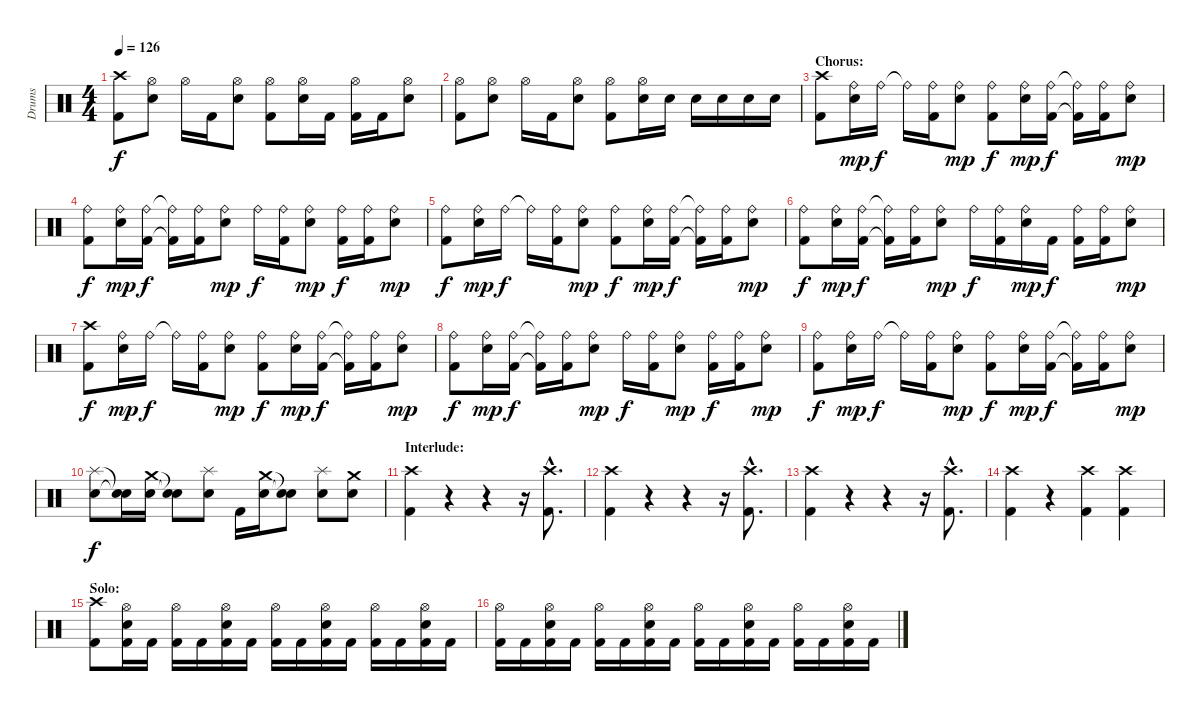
\track ("Drums" "Drums") {instrument percussion}
\staff {score}
\articulation defaults
\ts (4 4)
\tempo 126
\clef neutral
\ks c
("Crash high (hit)" "Kick (hit) 2").8{dy f} ("Hi-Hat (open)" "Snare (hit) 2").8 "Hi-Hat (open)".16 "Kick (hit) 2".16 ("Hi-Hat (open)" "Snare (hit) 2").8 ("Hi-Hat (open)" "Kick (hit) 2").8 ("Hi-Hat (open)" "Snare (hit) 2").16 "Kick (hit) 2".16 ("Hi-Hat (open)" "Kick (hit) 2").16 "Kick (hit) 2".16 ("Hi-Hat (open)" "Snare (hit) 2").8 |
("Hi-Hat (open)" "Kick (hit) 2").8 ("Hi-Hat (open)" "Snare (hit) 2").8 "Hi-Hat (open)".16 "Kick (hit) 2".16 ("Hi-Hat (open)" "Snare (hit) 2").8 ("Hi-Hat (open)" "Kick (hit) 2").8 ("Hi-Hat (open)" "Snare (hit) 2").16 "Snare (hit) 2".16 "Snare (hit) 2".16 "Snare (hit) 2".16 "Snare (hit) 2".16 "Snare (hit) 2".16 |
\section ("" "Chorus:")
("Crash high (hit)" "Kick (hit) 2").8 ("Ride (bell)" "Snare (hit) 2").16{dy mp} "Ride (bell)".16{dy f} "Ride (bell)"{t}.16 ("Ride (bell)" "Kick (hit) 2").16 ("Ride (bell)" "Snare (hit) 2").8{dy mp} ("Ride (bell)" "Kick (hit) 2").8{dy f} ("Ride (bell)" "Snare (hit) 2").16{dy mp} ("Ride (bell)" "Kick (hit) 2").16{dy f} ("Ride (bell)"{t} "Kick (hit) 2"{t}).16 ("Ride (bell)" "Kick (hit) 2").16 ("Ride (bell)" "Snare (hit) 2").8{dy mp} |
("Ride (bell)" "Kick (hit) 2").8{dy f} ("Ride (bell)" "Snare (hit) 2").16{dy mp} ("Ride (bell)" "Kick (hit) 2").16{dy f} ("Ride (bell)"{t} "Kick (hit) 2"{t}).16 ("Ride (bell)" "Kick (hit) 2").16 ("Ride (bell)" "Snare (hit) 2").8{dy mp} "Ride (bell)".16{dy f} ("Ride (bell)" "Kick (hit) 2").16 ("Ride (bell)" "Snare (hit) 2").8{dy mp} ("Ride (bell)" "Kick (hit) 2").16{dy f} ("Ride (bell)" "Kick (hit) 2").16 ("Ride (bell)" "Snare (hit) 2").8{dy mp} |
("Ride (bell)" "Kick (hit) 2").8{dy f} ("Ride (bell)" "Snare (hit) 2").16{dy mp} "Ride (bell)".16{dy f} "Ride (bell)"{t}.16 ("Ride (bell)" "Kick (hit) 2").16 ("Ride (bell)" "Snare (hit) 2").8{dy mp} ("Ride (bell)" "Kick (hit) 2").8{dy f} ("Ride (bell)" "Snare (hit) 2").16{dy mp} ("Ride (bell)" "Kick (hit) 2").16{dy f} ("Ride (bell)"{t} "Kick (hit) 2"{t}).16 ("Ride (bell)" "Kick (hit) 2").16 ("Ride (bell)" "Snare (hit) 2").8{dy mp} |
("Ride (bell)" "Kick (hit) 2").8{dy f} ("Ride (bell)" "Snare (hit) 2").16{dy mp} ("Ride (bell)" "Kick (hit) 2").16{dy f} ("Ride (bell)"{t} "Kick (hit) 2"{t}).16 ("Ride (bell)" "Kick (hit) 2").16 ("Ride (bell)" "Snare (hit) 2").8{dy mp} "Ride (bell)".16{dy f} ("Ride (bell)" "Kick (hit) 2").16 ("Ride (bell)" "Snare (hit) 2").16{dy mp} "Kick (hit) 2".16{dy f} ("Ride (bell)" "Kick (hit) 2").16 ("Ride (bell)" "Kick (hit) 2").16 ("Ride (bell)" "Snare (hit) 2").8{dy mp} |
("Crash high (hit)" "Kick (hit) 2").8{dy f} ("Ride (bell)" "Snare (hit) 2").16{dy mp} "Ride (bell)".16{dy f} "Ride (bell)"{t}.16 ("Ride (bell)" "Kick (hit) 2").16 ("Ride (bell)" "Snare (hit) 2").8{dy mp} ("Ride (bell)" "Kick (hit) 2").8{dy f} ("Ride (bell)" "Snare (hit) 2").16{dy mp} ("Ride (bell)" "Kick (hit) 2").16{dy f} ("Ride (bell)"{t} "Kick (hit) 2"{t}).16 ("Ride (bell)" "Kick (hit) 2").16 ("Ride (bell)" "Snare (hit) 2").8{dy mp} |
("Ride (bell)" "Kick (hit) 2").8{dy f} ("Ride (bell)" "Snare (hit) 2").16{dy mp} ("Ride (bell)" "Kick (hit) 2").16{dy f} ("Ride (bell)"{t} "Kick (hit) 2"{t}).16 ("Ride (bell)" "Kick (hit) 2").16 ("Ride (bell)" "Snare (hit) 2").8{dy mp} "Ride (bell)".16{dy f} ("Ride (bell)" "Kick (hit) 2").16 ("Ride (bell)" "Snare (hit) 2").8{dy mp} ("Ride (bell)" "Kick (hit) 2").16{dy f} ("Ride (bell)" "Kick (hit) 2").16 ("Ride (bell)" "Snare (hit) 2").8{dy mp} |
("Ride (bell)" "Kick (hit) 2").8{dy f} ("Ride (bell)" "Snare (hit) 2").16{dy mp} "Ride (bell)".16{dy f} "Ride (bell)"{t}.16 ("Ride (bell)" "Kick (hit) 2").16 ("Ride (bell)" "Snare (hit) 2").8{dy mp} ("Ride (bell)" "Kick (hit) 2").8{dy f} ("Ride (bell)" "Snare (hit) 2").16{dy mp} ("Ride (bell)" "Kick (hit) 2").16{dy f} ("Ride (bell)"{t} "Kick (hit) 2"{t}).16 ("Ride (bell)" "Kick (hit) 2").16 ("Ride (bell)" "Snare (hit) 2").8{dy mp} |
("Splash (hit)" "Snare (hit) 2").8{dy f} ("Snare (hit)"{t} "Snare (hit)"{t}).16 ("Crash medium (hit)" "Snare (hit) 2").16 ("Snare (hit)"{t} "Snare (hit)"{t}).8 ("Splash (hit)" "Snare (hit) 2").8 "Kick (hit) 2".16 ("Crash medium (hit)" "Snare (hit) 2").16 ("Snare (hit)"{t} "Snare (hit)"{t}).8 ("Splash (hit)" "Snare (hit) 2").8 ("Crash medium (hit)" "Snare (hit) 2").8 |
\section ("" "Interlude:")
("Crash high (hit)" "Kick (hit) 2").4 r.4 r.4 r.16 ("Crash high (hit)"{hac} "Kick (hit) 2"{hac}).8{d} |
("Crash high (hit)" "Kick (hit) 2").4 r.4 r.4 r.16 ("Crash high (hit)"{hac} "Kick (hit) 2"{hac}).8{d} |
("Crash high (hit)" "Kick (hit) 2").4 r.4 r.4 r.16 ("Crash high (hit)"{hac} "Kick (hit) 2"{hac}).8{d} |
("Crash high (hit)" "Kick (hit) 2").4 r.4 ("Crash high (hit)" "Kick (hit) 2").4 ("Crash high (hit)" "Kick (hit) 2").4 |
\section ("" "Solo:")
("Crash high (hit)" "Kick (hit) 2").8 ("Hi-Hat (open)" "Snare (hit) 2" "Kick (hit) 2").16 "Kick (hit) 2".16 ("Hi-Hat (open)" "Kick (hit) 2").16 "Kick (hit) 2".16 ("Hi-Hat (open)" "Snare (hit) 2" "Kick (hit) 2").16 "Kick (hit) 2".16 ("Hi-Hat (open)" "Kick (hit) 2").16 "Kick (hit) 2".16 ("Hi-Hat (open)" "Snare (hit) 2" "Kick (hit) 2").16 "Kick (hit) 2".16 ("Hi-Hat (open)" "Kick (hit) 2").16 "Kick (hit) 2".16 ("Hi-Hat (open)" "Snare (hit) 2" "Kick (hit) 2").16 "Kick (hit) 2".16 |
("Hi-Hat (open)" "Kick (hit) 2").16 "Kick (hit) 2".16 ("Hi-Hat (open)" "Snare (hit) 2" "Kick (hit) 2").16 "Kick (hit) 2".16 ("Hi-Hat (open)" "Kick (hit) 2").16 "Kick (hit) 2".16 ("Hi-Hat (open)" "Snare (hit) 2" "Kick (hit) 2").16 "Kick (hit) 2".16 ("Hi-Hat (open)" "Kick (hit) 2").16 "Kick (hit) 2".16 ("Hi-Hat (open)" "Snare (hit) 2" "Kick (hit) 2").16 "Kick (hit) 2".16 ("Hi-Hat (open)" "Kick (hit) 2").16 "Kick (hit) 2".16 ("Hi-Hat (open)" "Snare (hit) 2" "Kick (hit) 2").16 "Kick (hit) 2".16
